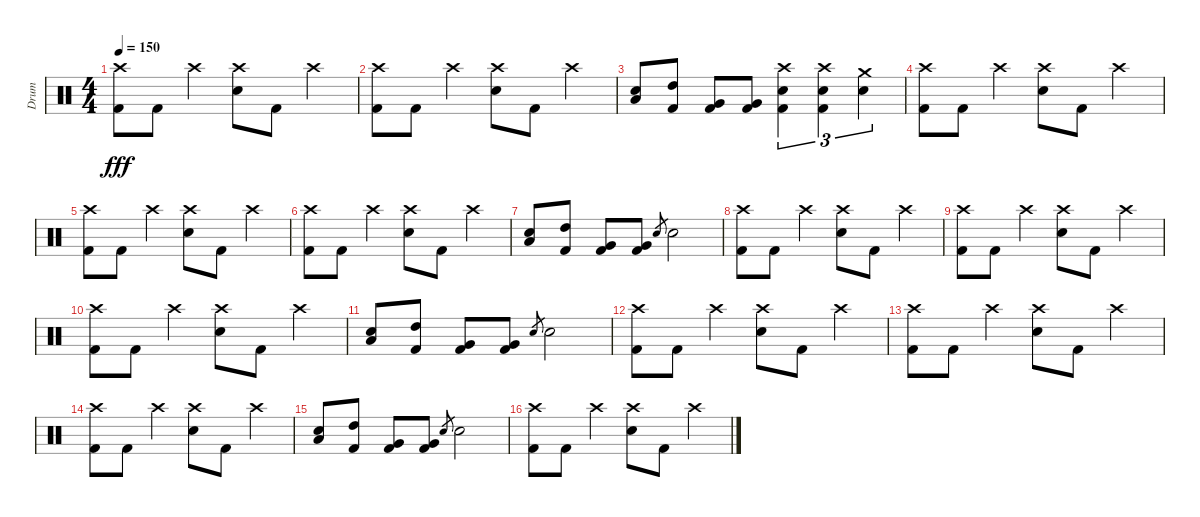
\track ("Drum" "Drum") {instrument percussion}
\staff {score}
\articulation defaults
\ts (4 4)
\tempo 150
\clef neutral
\ks c
("Crash high (hit)" "Kick (hit) 2").8{dy fff} "Kick (hit) 2".8 "Crash high (hit)".4 ("Crash high (hit)" "Electric Snare (hit)").8 "Kick (hit) 2".8 "Crash high (hit)".4 |
("Crash high (hit)" "Kick (hit) 2").8 "Kick (hit) 2".8 "Crash high (hit)".4 ("Crash high (hit)" "Electric Snare (hit)").8 "Kick (hit) 2".8 "Crash high (hit)".4 |
("Electric Snare (hit)" "Low Floor Tom (hit)").8 ("High Tom (hit)" "Kick (hit) 2").8 ("Very Low Tom (hit)" "Kick (hit) 2").8 ("Very Low Tom (hit)" "Kick (hit) 2").8 ("Crash high (hit)" "Electric Snare (hit)" "Kick (hit) 2").4{tu (3 2)} ("Crash high (hit)" "Electric Snare (hit)" "Kick (hit) 2").4{tu (3 2)} ("Crash medium (hit)" "Electric Snare (hit)").4{tu (3 2)} |
("Crash high (hit)" "Kick (hit) 2").8 "Kick (hit) 2".8 "Crash high (hit)".4 ("Crash high (hit)" "Electric Snare (hit)").8 "Kick (hit) 2".8 "Crash high (hit)".4 |
("Crash high (hit)" "Kick (hit) 2").8 "Kick (hit) 2".8 "Crash high (hit)".4 ("Crash high (hit)" "Electric Snare (hit)").8 "Kick (hit) 2".8 "Crash high (hit)".4 |
("Crash high (hit)" "Kick (hit) 2").8 "Kick (hit) 2".8 "Crash high (hit)".4 ("Crash high (hit)" "Electric Snare (hit)").8 "Kick (hit) 2".8 "Crash high (hit)".4 |
("Electric Snare (hit)" "Low Floor Tom (hit)").8 ("High Tom (hit)" "Kick (hit) 2").8 ("Very Low Tom (hit)" "Kick (hit) 2").8 ("Very Low Tom (hit)" "Kick (hit) 2").8 "Electric Snare (hit)".8{gr} "Electric Snare (hit)".2 |
("Crash high (hit)" "Kick (hit) 2").8 "Kick (hit) 2".8 "Crash high (hit)".4 ("Crash high (hit)" "Electric Snare (hit)").8 "Kick (hit) 2".8 "Crash high (hit)".4 |
("Crash high (hit)" "Kick (hit) 2").8 "Kick (hit) 2".8 "Crash high (hit)".4 ("Crash high (hit)" "Electric Snare (hit)").8 "Kick (hit) 2".8 "Crash high (hit)".4 |
("Crash high (hit)" "Kick (hit) 2").8 "Kick (hit) 2".8 "Crash high (hit)".4 ("Crash high (hit)" "Electric Snare (hit)").8 "Kick (hit) 2".8 "Crash high (hit)".4 |
("Electric Snare (hit)" "Low Floor Tom (hit)").8 ("High Tom (hit)" "Kick (hit) 2").8 ("Very Low Tom (hit)" "Kick (hit) 2").8 ("Very Low Tom (hit)" "Kick (hit) 2").8 "Electric Snare (hit)".8{gr} "Electric Snare (hit)".2 |
("Crash high (hit)" "Kick (hit) 2").8 "Kick (hit) 2".8 "Crash high (hit)".4 ("Crash high (hit)" "Electric Snare (hit)").8 "Kick (hit) 2".8 "Crash high (hit)".4 |
("Crash high (hit)" "Kick (hit) 2").8 "Kick (hit) 2".8 "Crash high (hit)".4 ("Crash high (hit)" "Electric Snare (hit)").8 "Kick (hit) 2".8 "Crash high (hit)".4 |
("Crash high (hit)" "Kick (hit) 2").8 "Kick (hit) 2".8 "Crash high (hit)".4 ("Crash high (hit)" "Electric Snare (hit)").8 "Kick (hit) 2".8 "Crash high (hit)".4 |
("Electric Snare (hit)" "Low Floor Tom (hit)").8 ("High Tom (hit)" "Kick (hit) 2").8 ("Very Low Tom (hit)" "Kick (hit) 2").8 ("Very Low Tom (hit)" "Kick (hit) 2").8 "Electric Snare (hit)".8{gr} "Electric Snare (hit)".2 |
("Crash high (hit)" "Kick (hit) 2").8 "Kick (hit) 2".8 "Crash high (hit)".4 ("Crash high (hit)" "Electric Snare (hit)").8 "Kick (hit) 2".8 "Crash high (hit)".4
